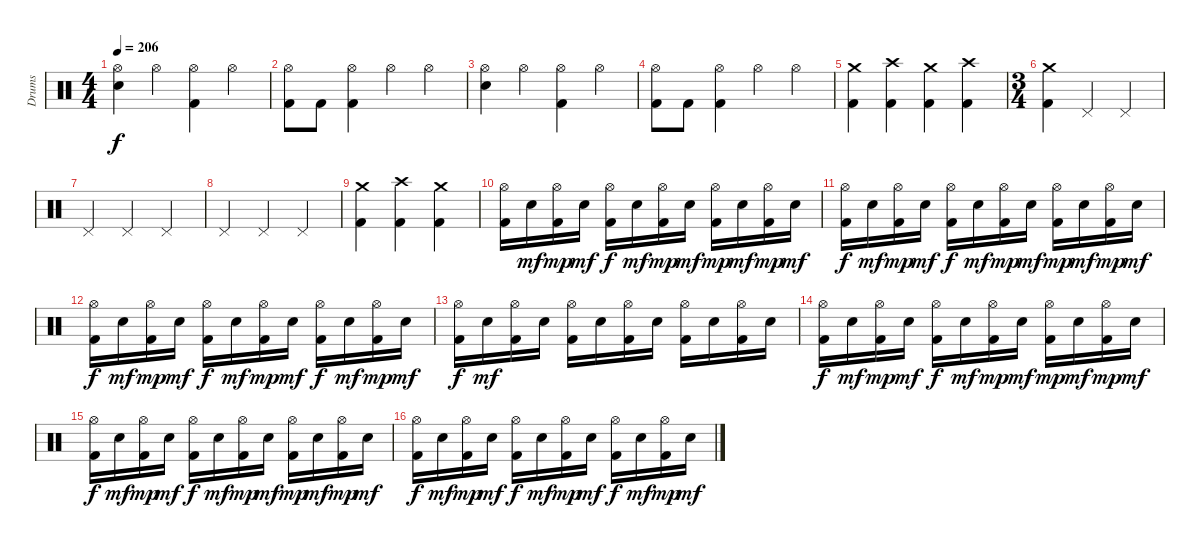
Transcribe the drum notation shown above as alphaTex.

\track ("Drums" "Drums") {instrument percussion}
\staff {score}
\articulation defaults
\ts (4 4)
\tempo 206
\clef neutral
\ks c
("Hi-Hat (open)" "Electric Snare (hit)").4{dy f} "Hi-Hat (open)".4 ("Hi-Hat (open)" "Kick (hit) 2").4 "Hi-Hat (open)".4 |
("Hi-Hat (open)" "Kick (hit) 2").8 "Kick (hit) 2".8 ("Hi-Hat (open)" "Kick (hit) 2").4 "Hi-Hat (open)".4 "Hi-Hat (open)".4 |
("Hi-Hat (open)" "Electric Snare (hit)").4 "Hi-Hat (open)".4 ("Hi-Hat (open)" "Kick (hit) 2").4 "Hi-Hat (open)".4 |
("Hi-Hat (open)" "Kick (hit) 2").8 "Kick (hit) 2".8 ("Hi-Hat (open)" "Kick (hit) 2").4 "Hi-Hat (open)".4 "Hi-Hat (open)".4 |
("Crash medium (hit)" "Kick (hit) 2").4 ("Crash high (hit)" "Kick (hit) 2").4 ("Crash medium (hit)" "Kick (hit) 2").4 ("Crash high (hit)" "Kick (hit) 2").4 |
\ts (3 4)
("Crash medium (hit)" "Kick (hit) 2").4 "Pedal Hi-Hat (hit)".4 "Pedal Hi-Hat (hit)".4 |
"Pedal Hi-Hat (hit)".4 "Pedal Hi-Hat (hit)".4 "Pedal Hi-Hat (hit)".4 |
"Pedal Hi-Hat (hit)".4 "Pedal Hi-Hat (hit)".4 "Pedal Hi-Hat (hit)".4 |
("Crash medium (hit)" "Kick (hit) 2").4 ("Crash high (hit)" "Kick (hit) 2").4 ("Crash medium (hit)" "Kick (hit) 2").4 |
("Hi-Hat (open)" "Kick (hit) 2").16 "Electric Snare (hit)".16{dy mf} ("Hi-Hat (open)" "Kick (hit) 2").16{dy mp} "Electric Snare (hit)".16{dy mf} ("Hi-Hat (open)" "Kick (hit) 2").16{dy f} "Electric Snare (hit)".16{dy mf} ("Hi-Hat (open)" "Kick (hit) 2").16{dy mp} "Electric Snare (hit)".16{dy mf} ("Hi-Hat (open)" "Kick (hit) 2").16{dy mp} "Electric Snare (hit)".16{dy mf} ("Hi-Hat (open)" "Kick (hit) 2").16{dy mp} "Electric Snare (hit)".16{dy mf} |
("Hi-Hat (open)" "Kick (hit) 2").16{dy f} "Electric Snare (hit)".16{dy mf} ("Hi-Hat (open)" "Kick (hit) 2").16{dy mp} "Electric Snare (hit)".16{dy mf} ("Hi-Hat (open)" "Kick (hit) 2").16{dy f} "Electric Snare (hit)".16{dy mf} ("Hi-Hat (open)" "Kick (hit) 2").16{dy mp} "Electric Snare (hit)".16{dy mf} ("Hi-Hat (open)" "Kick (hit) 2").16{dy mp} "Electric Snare (hit)".16{dy mf} ("Hi-Hat (open)" "Kick (hit) 2").16{dy mp} "Electric Snare (hit)".16{dy mf} |
("Hi-Hat (open)" "Kick (hit) 2").16{dy f} "Electric Snare (hit)".16{dy mf} ("Hi-Hat (open)" "Kick (hit) 2").16{dy mp} "Electric Snare (hit)".16{dy mf} ("Hi-Hat (open)" "Kick (hit) 2").16{dy f} "Electric Snare (hit)".16{dy mf} ("Hi-Hat (open)" "Kick (hit) 2").16{dy mp} "Electric Snare (hit)".16{dy mf} ("Hi-Hat (open)" "Kick (hit) 2").16{dy f} "Electric Snare (hit)".16{dy mf} ("Hi-Hat (open)" "Kick (hit) 2").16{dy mp} "Electric Snare (hit)".16{dy mf} |
("Hi-Hat (open)" "Kick (hit) 2").16{dy f} "Electric Snare (hit)".16{dy mf} ("Hi-Hat (open)" "Kick (hit) 2").16 "Electric Snare (hit)".16 ("Hi-Hat (open)" "Kick (hit) 2").16 "Electric Snare (hit)".16 ("Hi-Hat (open)" "Kick (hit) 2").16 "Electric Snare (hit)".16 ("Hi-Hat (open)" "Kick (hit) 2").16 "Electric Snare (hit)".16 ("Hi-Hat (open)" "Kick (hit) 2").16 "Electric Snare (hit)".16 |
("Hi-Hat (open)" "Kick (hit) 2").16{dy f} "Electric Snare (hit)".16{dy mf} ("Hi-Hat (open)" "Kick (hit) 2").16{dy mp} "Electric Snare (hit)".16{dy mf} ("Hi-Hat (open)" "Kick (hit) 2").16{dy f} "Electric Snare (hit)".16{dy mf} ("Hi-Hat (open)" "Kick (hit) 2").16{dy mp} "Electric Snare (hit)".16{dy mf} ("Hi-Hat (open)" "Kick (hit) 2").16{dy mp} "Electric Snare (hit)".16{dy mf} ("Hi-Hat (open)" "Kick (hit) 2").16{dy mp} "Electric Snare (hit)".16{dy mf} |
("Hi-Hat (open)" "Kick (hit) 2").16{dy f} "Electric Snare (hit)".16{dy mf} ("Hi-Hat (open)" "Kick (hit) 2").16{dy mp} "Electric Snare (hit)".16{dy mf} ("Hi-Hat (open)" "Kick (hit) 2").16{dy f} "Electric Snare (hit)".16{dy mf} ("Hi-Hat (open)" "Kick (hit) 2").16{dy mp} "Electric Snare (hit)".16{dy mf} ("Hi-Hat (open)" "Kick (hit) 2").16{dy mp} "Electric Snare (hit)".16{dy mf} ("Hi-Hat (open)" "Kick (hit) 2").16{dy mp} "Electric Snare (hit)".16{dy mf} |
("Hi-Hat (open)" "Kick (hit) 2").16{dy f} "Electric Snare (hit)".16{dy mf} ("Hi-Hat (open)" "Kick (hit) 2").16{dy mp} "Electric Snare (hit)".16{dy mf} ("Hi-Hat (open)" "Kick (hit) 2").16{dy f} "Electric Snare (hit)".16{dy mf} ("Hi-Hat (open)" "Kick (hit) 2").16{dy mp} "Electric Snare (hit)".16{dy mf} ("Hi-Hat (open)" "Kick (hit) 2").16{dy f} "Electric Snare (hit)".16{dy mf} ("Hi-Hat (open)" "Kick (hit) 2").16{dy mp} "Electric Snare (hit)".16{dy mf}
